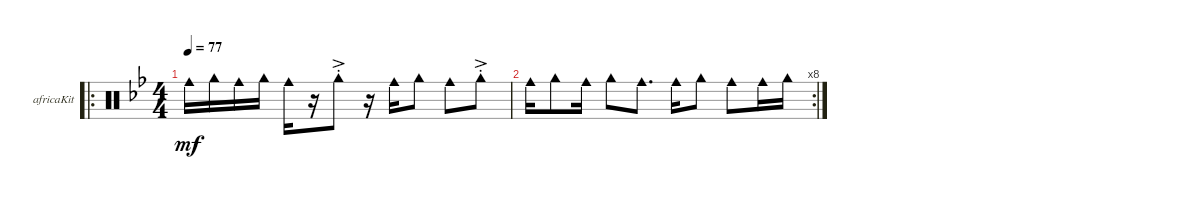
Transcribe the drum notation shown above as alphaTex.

\defaultSystemsLayout 4
\bracketExtendMode groupsimilarinstruments
\firstSystemTrackNameOrientation horizontal
\otherSystemsTrackNameOrientation horizontal
\track ("Kit-Africa" "africaKit") {instrument percussion}
\staff {score}
\articulation defaults
\ro
\ts (4 4)
\tempo 77
\clef neutral
\ks bb "Cowbell medium (hit)".16{dy mf} "Cowbell high (hit)".16 "Cowbell medium (hit)".16 "Cowbell high (hit)".16 "Cowbell medium (hit)".16
r.16 "Cowbell high (hit)"{ac st}.8 r.16 "Cowbell medium (hit)".16 "Cowbell high (hit)".8 "Cowbell medium (hit)".8 "Cowbell high (hit)"{ac st}.8 |
\rc 8 "Cowbell medium (hit)".16 "Cowbell high (hit)".8 "Cowbell medium (hit)".16 "Cowbell high (hit)".8 "Cowbell medium (hit)".8{d} "Cowbell medium (hit)".16 "Cowbell high (hit)".8 "Cowbell medium (hit)".8 "Cowbell medium (hit)".16 "Cowbell high (hit)".16
